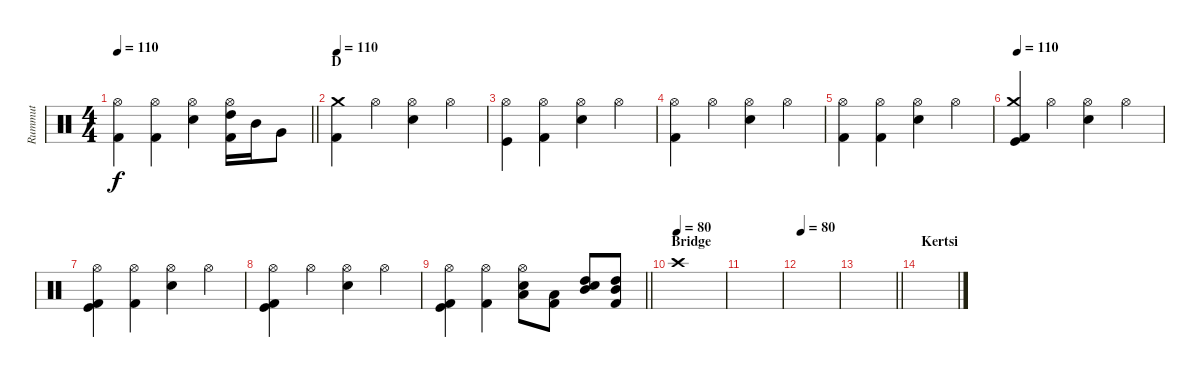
\track ("Rummut" "Rummut") {instrument percussion}
\staff {score}
\articulation defaults
\ts (4 4)
\tempo 110
\clef neutral
\barLineRight lightlight
\ks c
("Hi-Hat (open)" "Kick (hit) 2").4{dy f} ("Hi-Hat (open)" "Kick (hit) 2").4 ("Hi-Hat (open)" "Snare (hit) 2").4 ("Hi-Hat (open)" "High Tom (hit)" "Kick (hit) 2").16 "Mid Tom (hit)".16 "Very Low Tom (hit)".8 |
\section ("" "D")
\tempo 110
("Kick (hit) 2" "Crash medium (hit)").4 "Hi-Hat (open)".4 ("Hi-Hat (open)" "Snare (hit) 2").4 "Hi-Hat (open)".4 |
("Hi-Hat (open)" "Kick (hit)").4 ("Hi-Hat (open)" "Kick (hit) 2").4 ("Hi-Hat (open)" "Snare (hit) 2").4 "Hi-Hat (open)".4 |
("Hi-Hat (open)" "Kick (hit) 2").4 "Hi-Hat (open)".4 ("Hi-Hat (open)" "Snare (hit) 2").4 "Hi-Hat (open)".4 |
("Hi-Hat (open)" "Kick (hit) 2").4 ("Hi-Hat (open)" "Kick (hit) 2").4 ("Hi-Hat (open)" "Snare (hit) 2").4 "Hi-Hat (open)".4 |
\tempo 110
("Kick (hit) 2" "Kick (hit)" "Crash medium (hit)").4 "Hi-Hat (open)".4 ("Hi-Hat (open)" "Snare (hit) 2").4 "Hi-Hat (open)".4 |
("Hi-Hat (open)" "Kick (hit) 2" "Kick (hit)").4 ("Hi-Hat (open)" "Kick (hit) 2").4 ("Hi-Hat (open)" "Snare (hit) 2").4 "Hi-Hat (open)".4 |
("Hi-Hat (open)" "Kick (hit) 2" "Kick (hit)").4 "Hi-Hat (open)".4 ("Hi-Hat (open)" "Snare (hit) 2").4 "Hi-Hat (open)".4 |
\barLineRight lightlight
("Hi-Hat (open)" "Kick (hit) 2" "Kick (hit)").4 ("Hi-Hat (open)" "Kick (hit) 2").4 ("Hi-Hat (open)" "Low Floor Tom (hit)" "Snare (hit) 2").8 ("Low Floor Tom (hit)" "Kick (hit) 2").8 ("Mid Tom (hit)" "High Tom (hit)" "Snare (hit) 2").8 ("Mid Tom (hit)" "High Tom (hit)" "Kick (hit) 2").8 |
\section ("" "Bridge")
\tempo (80)
"Crash high (hit)".1 |
|
\tempo 80
|
\barLineRight lightlight
|
\section ("" "Kertsi")
